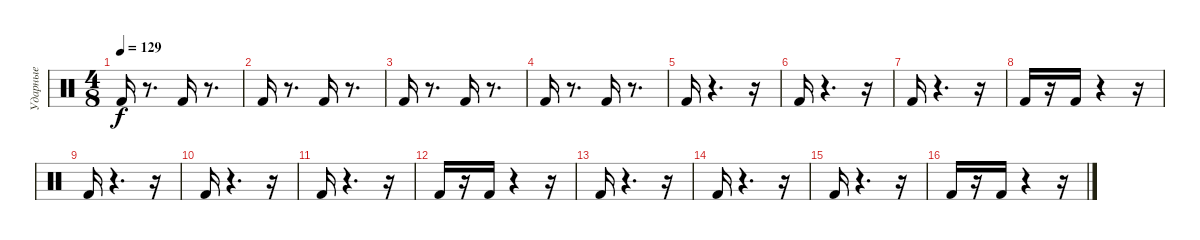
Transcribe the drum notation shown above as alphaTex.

\track ("Ударные" "Ударные") {instrument percussion}
\staff {score}
\articulation defaults
\ts (4 8)
\tempo 129
\clef neutral
\ks c "Kick (hit) 2".16{dy f}
r.8{d} "Kick (hit) 2".16 r.8{d} |
"Kick (hit) 2".16 r.8{d} "Kick (hit) 2".16 r.8{d} |
"Kick (hit) 2".16 r.8{d} "Kick (hit) 2".16 r.8{d} |
"Kick (hit) 2".16 r.8{d} "Kick (hit) 2".16 r.8{d} |
"Kick (hit) 2".16 r.4{d} r.16 |
"Kick (hit) 2".16 r.4{d} r.16 |
"Kick (hit) 2".16 r.4{d} r.16 |
"Kick (hit) 2".16 r.16 "Kick (hit) 2".16 r.4 r.16 |
"Kick (hit) 2".16 r.4{d} r.16 |
"Kick (hit) 2".16 r.4{d} r.16 |
"Kick (hit) 2".16 r.4{d} r.16 |
"Kick (hit) 2".16 r.16 "Kick (hit) 2".16 r.4 r.16 |
"Kick (hit) 2".16 r.4{d} r.16 |
"Kick (hit) 2".16 r.4{d} r.16 |
"Kick (hit) 2".16 r.4{d} r.16 |
"Kick (hit) 2".16 r.16 "Kick (hit) 2".16 r.4 r.16
